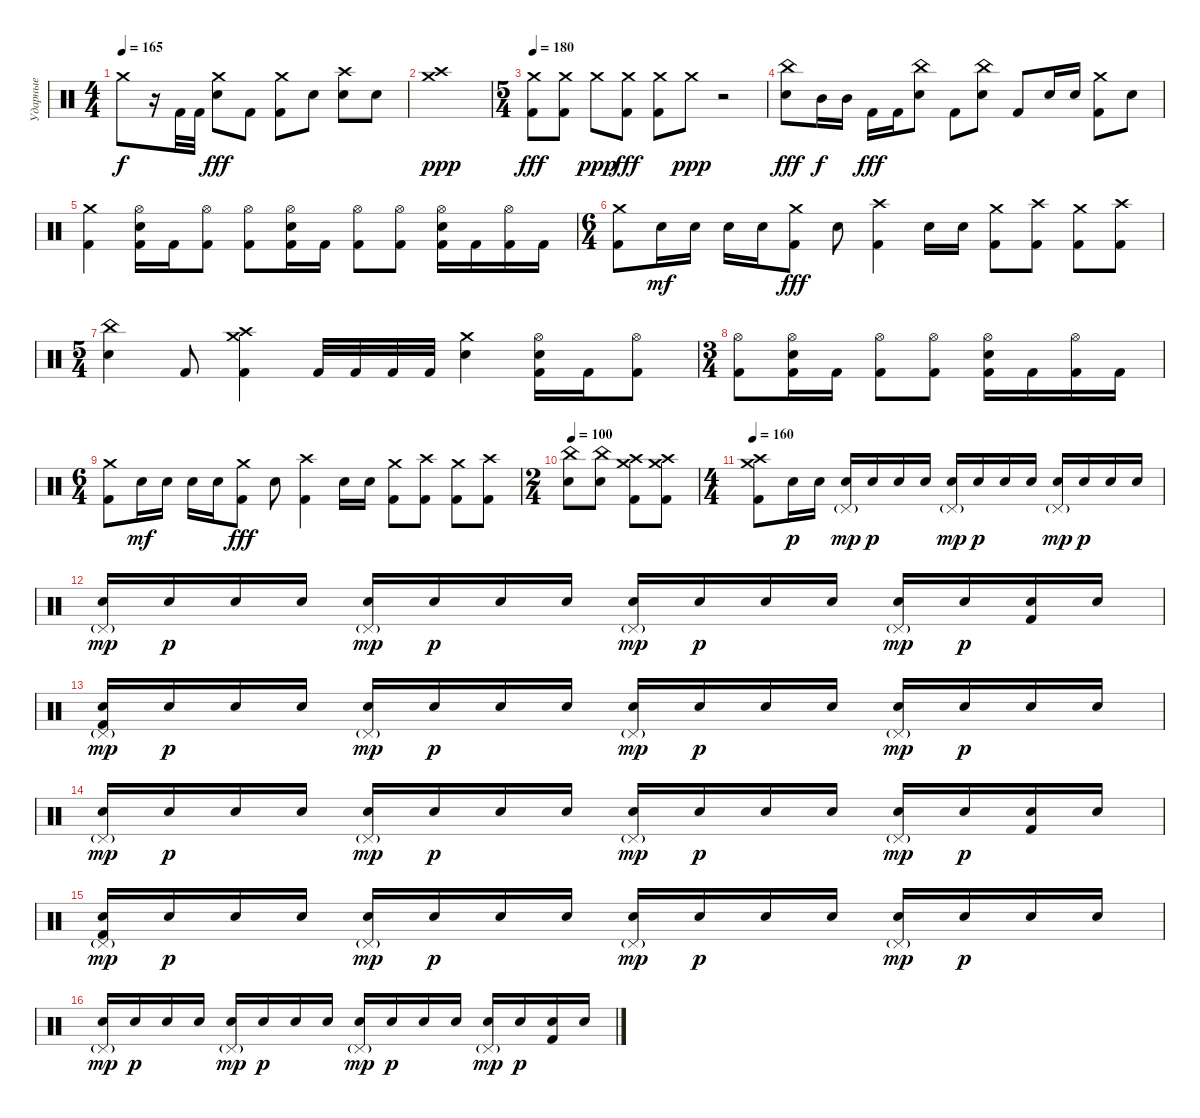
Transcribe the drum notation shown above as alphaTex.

\track ("Ударные" "Ударные") {instrument percussion}
\staff {score}
\articulation defaults
\ts (4 4)
\tempo 165
\clef neutral
\ks c "Crash medium (hit)".8{dy f}
r.16 "Kick (hit) 2".32 "Kick (hit) 2".32 ("Crash medium (hit)" "Electric Snare (hit)").8{dy fff} "Kick (hit) 2".8 ("Crash medium (hit)" "Kick (hit) 2").8 "Electric Snare (hit)".8 ("Crash high (hit)" "Electric Snare (hit)").8 "Electric Snare (hit)".8 |
("Crash medium (hit)" "Crash high (hit)").1{dy ppp} |
\ts (5 4)
\tempo 180
("Crash medium (hit)" "Kick (hit) 2").8{dy fff} ("Crash medium (hit)" "Kick (hit) 2").8 "Crash medium (hit)".8{dy ppp} ("Crash medium (hit)" "Kick (hit) 2").8{dy fff} ("Crash medium (hit)" "Kick (hit) 2").8 "Crash medium (hit)".8{dy ppp} r.2 |
("China (hit)" "Electric Snare (hit)").8{dy fff} "Mid Tom (hit)".16{dy f} "Mid Tom (hit)".16 "Kick (hit) 2".16{dy fff} "Kick (hit) 2".16 ("China (hit)" "Electric Snare (hit)").8 "Kick (hit) 2".8 ("China (hit)" "Electric Snare (hit)").8 "Kick (hit) 2".8 "Electric Snare (hit)".16 "Electric Snare (hit)".16 ("Crash medium (hit)" "Kick (hit) 2").8 "Electric Snare (hit)".8 |
("Crash medium (hit)" "Kick (hit) 2").4 ("Hi-Hat (open)" "Electric Snare (hit)" "Kick (hit) 2").16 "Kick (hit) 2".16 ("Hi-Hat (open)" "Kick (hit) 2").8 ("Hi-Hat (open)" "Kick (hit) 2").8 ("Hi-Hat (open)" "Electric Snare (hit)" "Kick (hit) 2").16 "Kick (hit) 2".16 ("Hi-Hat (open)" "Kick (hit) 2").8 ("Hi-Hat (open)" "Kick (hit) 2").8 ("Hi-Hat (open)" "Electric Snare (hit)" "Kick (hit) 2").16 "Kick (hit) 2".16 ("Hi-Hat (open)" "Kick (hit) 2").16 "Kick (hit) 2".16 |
\ts (6 4)
("Crash medium (hit)" "Kick (hit) 2").8 "Electric Snare (hit)".16{dy mf} "Electric Snare (hit)".16 "Electric Snare (hit)".16 "Electric Snare (hit)".16 ("Crash medium (hit)" "Kick (hit) 2").8{dy fff} "Electric Snare (hit)".8 ("Crash high (hit)" "Kick (hit) 2").4 "Electric Snare (hit)".16 "Electric Snare (hit)".16 ("Crash medium (hit)" "Kick (hit) 2").8 ("Crash high (hit)" "Kick (hit) 2").8 ("Crash medium (hit)" "Kick (hit) 2").8 ("Crash high (hit)" "Kick (hit) 2").8 |
\ts (5 4)
("China (hit)" "Electric Snare (hit)").4 "Kick (hit) 2".8 ("Crash medium (hit)" "Crash high (hit)" "Kick (hit) 2").4 "Kick (hit) 2".32 "Kick (hit) 2".32 "Kick (hit) 2".32 "Kick (hit) 2".32 ("Crash medium (hit)" "Electric Snare (hit)").4 ("Hi-Hat (open)" "Electric Snare (hit)" "Kick (hit) 2").16 "Kick (hit) 2".16 ("Hi-Hat (open)" "Kick (hit) 2").8 |
\ts (3 4)
("Hi-Hat (open)" "Kick (hit) 2").8 ("Hi-Hat (open)" "Electric Snare (hit)" "Kick (hit) 2").16 "Kick (hit) 2".16 ("Hi-Hat (open)" "Kick (hit) 2").8 ("Hi-Hat (open)" "Kick (hit) 2").8 ("Hi-Hat (open)" "Electric Snare (hit)" "Kick (hit) 2").16 "Kick (hit) 2".16 ("Hi-Hat (open)" "Kick (hit) 2").16 "Kick (hit) 2".16 |
\ts (6 4)
("Crash medium (hit)" "Kick (hit) 2").8 "Electric Snare (hit)".16{dy mf} "Electric Snare (hit)".16 "Electric Snare (hit)".16 "Electric Snare (hit)".16 ("Crash medium (hit)" "Kick (hit) 2").8{dy fff} "Electric Snare (hit)".8 ("Crash high (hit)" "Kick (hit) 2").4 "Electric Snare (hit)".16 "Electric Snare (hit)".16 ("Crash medium (hit)" "Kick (hit) 2").8 ("Crash high (hit)" "Kick (hit) 2").8 ("Crash medium (hit)" "Kick (hit) 2").8 ("Crash high (hit)" "Kick (hit) 2").8 |
\ts (2 4)
\tempo 100
("China (hit)" "Electric Snare (hit)").8 ("China (hit)" "Electric Snare (hit)").8 ("Crash medium (hit)" "Crash high (hit)" "Kick (hit) 2").8 ("Crash medium (hit)" "Crash high (hit)" "Kick (hit) 2").8 |
\ts (4 4)
\tempo 160
("Crash medium (hit)" "Crash high (hit)" "Kick (hit) 2").8 "Electric Snare (hit)".16{dy p} "Electric Snare (hit)".16 ("Pedal Hi-Hat (hit)"{g} "Electric Snare (hit)").16{dy mp} "Electric Snare (hit)".16{dy p} "Electric Snare (hit)".16 "Electric Snare (hit)".16 ("Pedal Hi-Hat (hit)"{g} "Electric Snare (hit)").16{dy mp} "Electric Snare (hit)".16{dy p} "Electric Snare (hit)".16 "Electric Snare (hit)".16 ("Pedal Hi-Hat (hit)"{g} "Electric Snare (hit)").16{dy mp} "Electric Snare (hit)".16{dy p} "Electric Snare (hit)".16 "Electric Snare (hit)".16 |
("Pedal Hi-Hat (hit)"{g} "Electric Snare (hit)").16{dy mp} "Electric Snare (hit)".16{dy p} "Electric Snare (hit)".16 "Electric Snare (hit)".16 ("Pedal Hi-Hat (hit)"{g} "Electric Snare (hit)").16{dy mp} "Electric Snare (hit)".16{dy p} "Electric Snare (hit)".16 "Electric Snare (hit)".16 ("Pedal Hi-Hat (hit)"{g} "Electric Snare (hit)").16{dy mp} "Electric Snare (hit)".16{dy p} "Electric Snare (hit)".16 "Electric Snare (hit)".16 ("Pedal Hi-Hat (hit)"{g} "Electric Snare (hit)").16{dy mp} "Electric Snare (hit)".16{dy p} ("Electric Snare (hit)" "Kick (hit) 2").16 "Electric Snare (hit)".16 |
("Pedal Hi-Hat (hit)"{g} "Electric Snare (hit)" "Kick (hit) 2").16{dy mp} "Electric Snare (hit)".16{dy p} "Electric Snare (hit)".16 "Electric Snare (hit)".16 ("Pedal Hi-Hat (hit)"{g} "Electric Snare (hit)").16{dy mp} "Electric Snare (hit)".16{dy p} "Electric Snare (hit)".16 "Electric Snare (hit)".16 ("Pedal Hi-Hat (hit)"{g} "Electric Snare (hit)").16{dy mp} "Electric Snare (hit)".16{dy p} "Electric Snare (hit)".16 "Electric Snare (hit)".16 ("Pedal Hi-Hat (hit)"{g} "Electric Snare (hit)").16{dy mp} "Electric Snare (hit)".16{dy p} "Electric Snare (hit)".16 "Electric Snare (hit)".16 |
("Pedal Hi-Hat (hit)"{g} "Electric Snare (hit)").16{dy mp} "Electric Snare (hit)".16{dy p} "Electric Snare (hit)".16 "Electric Snare (hit)".16 ("Pedal Hi-Hat (hit)"{g} "Electric Snare (hit)").16{dy mp} "Electric Snare (hit)".16{dy p} "Electric Snare (hit)".16 "Electric Snare (hit)".16 ("Pedal Hi-Hat (hit)"{g} "Electric Snare (hit)").16{dy mp} "Electric Snare (hit)".16{dy p} "Electric Snare (hit)".16 "Electric Snare (hit)".16 ("Pedal Hi-Hat (hit)"{g} "Electric Snare (hit)").16{dy mp} "Electric Snare (hit)".16{dy p} ("Electric Snare (hit)" "Kick (hit) 2").16 "Electric Snare (hit)".16 |
("Pedal Hi-Hat (hit)"{g} "Electric Snare (hit)" "Kick (hit) 2").16{dy mp} "Electric Snare (hit)".16{dy p} "Electric Snare (hit)".16 "Electric Snare (hit)".16 ("Pedal Hi-Hat (hit)"{g} "Electric Snare (hit)").16{dy mp} "Electric Snare (hit)".16{dy p} "Electric Snare (hit)".16 "Electric Snare (hit)".16 ("Pedal Hi-Hat (hit)"{g} "Electric Snare (hit)").16{dy mp} "Electric Snare (hit)".16{dy p} "Electric Snare (hit)".16 "Electric Snare (hit)".16 ("Pedal Hi-Hat (hit)"{g} "Electric Snare (hit)").16{dy mp} "Electric Snare (hit)".16{dy p} "Electric Snare (hit)".16 "Electric Snare (hit)".16 |
("Pedal Hi-Hat (hit)"{g} "Electric Snare (hit)").16{dy mp} "Electric Snare (hit)".16{dy p} "Electric Snare (hit)".16 "Electric Snare (hit)".16 ("Pedal Hi-Hat (hit)"{g} "Electric Snare (hit)").16{dy mp} "Electric Snare (hit)".16{dy p} "Electric Snare (hit)".16 "Electric Snare (hit)".16 ("Pedal Hi-Hat (hit)"{g} "Electric Snare (hit)").16{dy mp} "Electric Snare (hit)".16{dy p} "Electric Snare (hit)".16 "Electric Snare (hit)".16 ("Pedal Hi-Hat (hit)"{g} "Electric Snare (hit)").16{dy mp} "Electric Snare (hit)".16{dy p} ("Electric Snare (hit)" "Kick (hit) 2").16 "Electric Snare (hit)".16
